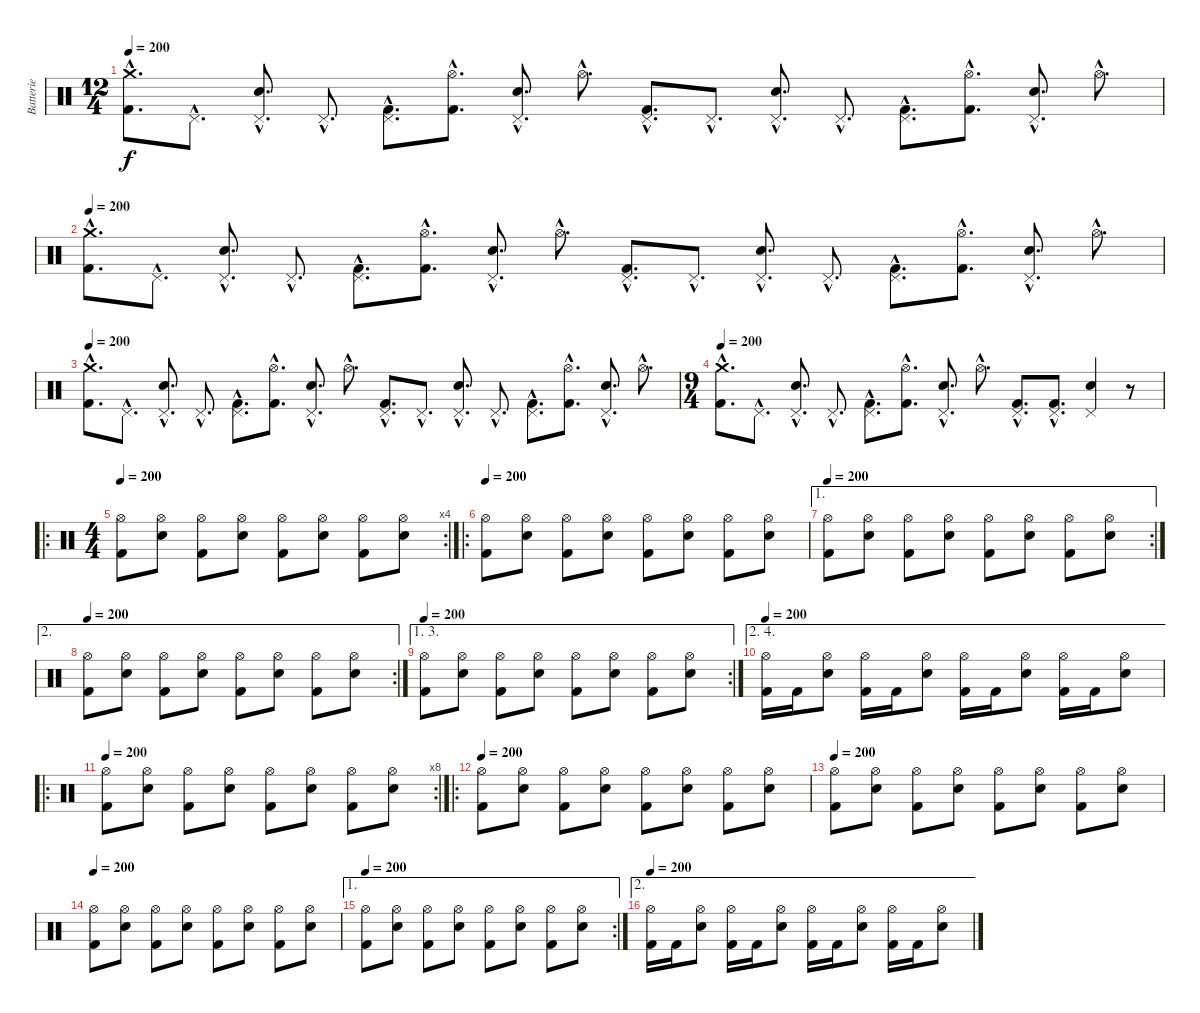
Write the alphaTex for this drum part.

\track ("Batterie" "Batterie") {instrument percussion}
\staff {score}
\articulation defaults
\ts (12 4)
\tempo 220
\tempo 200
\clef neutral
\ks c
("Crash medium (hit)"{hac} "Kick (hit) 2"{hac}).8{d dy f} "Pedal Hi-Hat (hit)"{hac}.8{d} ("Pedal Hi-Hat (hit)"{hac} "Electric Snare (hit)"{hac}).8{d} "Pedal Hi-Hat (hit)"{hac}.8{d} ("Pedal Hi-Hat (hit)"{hac} "Kick (hit) 2"{hac}).8{d} ("Hi-Hat (open)"{hac} "Kick (hit) 2"{hac}).8{d} ("Pedal Hi-Hat (hit)"{hac} "Electric Snare (hit)"{hac}).8{d} "Hi-Hat (open)"{hac}.8{d} ("Pedal Hi-Hat (hit)"{hac} "Kick (hit) 2"{hac}).8{d} "Pedal Hi-Hat (hit)"{hac}.8{d} ("Pedal Hi-Hat (hit)"{hac} "Electric Snare (hit)"{hac}).8{d} "Pedal Hi-Hat (hit)"{hac}.8{d} ("Pedal Hi-Hat (hit)"{hac} "Kick (hit) 2"{hac}).8{d} ("Hi-Hat (open)"{hac} "Kick (hit) 2"{hac}).8{d} ("Pedal Hi-Hat (hit)"{hac} "Electric Snare (hit)"{hac}).8{d} "Hi-Hat (open)"{hac}.8{d} |
\tempo 220
\tempo 200
("Crash medium (hit)"{hac} "Kick (hit) 2"{hac}).8{d} "Pedal Hi-Hat (hit)"{hac}.8{d} ("Pedal Hi-Hat (hit)"{hac} "Electric Snare (hit)"{hac}).8{d} "Pedal Hi-Hat (hit)"{hac}.8{d} ("Pedal Hi-Hat (hit)"{hac} "Kick (hit) 2"{hac}).8{d} ("Hi-Hat (open)"{hac} "Kick (hit) 2"{hac}).8{d} ("Pedal Hi-Hat (hit)"{hac} "Electric Snare (hit)"{hac}).8{d} "Hi-Hat (open)"{hac}.8{d} ("Pedal Hi-Hat (hit)"{hac} "Kick (hit) 2"{hac}).8{d} "Pedal Hi-Hat (hit)"{hac}.8{d} ("Pedal Hi-Hat (hit)"{hac} "Electric Snare (hit)"{hac}).8{d} "Pedal Hi-Hat (hit)"{hac}.8{d} ("Pedal Hi-Hat (hit)"{hac} "Kick (hit) 2"{hac}).8{d} ("Hi-Hat (open)"{hac} "Kick (hit) 2"{hac}).8{d} ("Pedal Hi-Hat (hit)"{hac} "Electric Snare (hit)"{hac}).8{d} "Hi-Hat (open)"{hac}.8{d} |
\tempo 220
\tempo 200
("Crash medium (hit)"{hac} "Kick (hit) 2"{hac}).8{d} "Pedal Hi-Hat (hit)"{hac}.8{d} ("Pedal Hi-Hat (hit)"{hac} "Electric Snare (hit)"{hac}).8{d} "Pedal Hi-Hat (hit)"{hac}.8{d} ("Pedal Hi-Hat (hit)"{hac} "Kick (hit) 2"{hac}).8{d} ("Hi-Hat (open)"{hac} "Kick (hit) 2"{hac}).8{d} ("Pedal Hi-Hat (hit)"{hac} "Electric Snare (hit)"{hac}).8{d} "Hi-Hat (open)"{hac}.8{d} ("Pedal Hi-Hat (hit)"{hac} "Kick (hit) 2"{hac}).8{d} "Pedal Hi-Hat (hit)"{hac}.8{d} ("Pedal Hi-Hat (hit)"{hac} "Electric Snare (hit)"{hac}).8{d} "Pedal Hi-Hat (hit)"{hac}.8{d} ("Pedal Hi-Hat (hit)"{hac} "Kick (hit) 2"{hac}).8{d} ("Hi-Hat (open)"{hac} "Kick (hit) 2"{hac}).8{d} ("Pedal Hi-Hat (hit)"{hac} "Electric Snare (hit)"{hac}).8{d} "Hi-Hat (open)"{hac}.8{d} |
\ts (9 4)
\tempo 200
("Crash medium (hit)"{hac} "Kick (hit) 2"{hac}).8{d} "Pedal Hi-Hat (hit)"{hac}.8{d} ("Pedal Hi-Hat (hit)"{hac} "Electric Snare (hit)"{hac}).8{d} "Pedal Hi-Hat (hit)"{hac}.8{d} ("Pedal Hi-Hat (hit)"{hac} "Kick (hit) 2"{hac}).8{d} ("Hi-Hat (open)"{hac} "Kick (hit) 2"{hac}).8{d} ("Pedal Hi-Hat (hit)"{hac} "Electric Snare (hit)"{hac}).8{d} "Hi-Hat (open)"{hac}.8{d} ("Pedal Hi-Hat (hit)"{hac} "Kick (hit) 2"{hac}).8{d} ("Pedal Hi-Hat (hit)"{hac} "Kick (hit) 2"{hac}).8{d} ("Pedal Hi-Hat (hit)" "Electric Snare (hit)").4 r.8 |
\ro
\rc 4
\ts (4 4)
\tempo 200
("Hi-Hat (open)" "Kick (hit) 2").8 ("Hi-Hat (open)" "Electric Snare (hit)").8 ("Hi-Hat (open)" "Kick (hit) 2").8 ("Hi-Hat (open)" "Electric Snare (hit)").8 ("Hi-Hat (open)" "Kick (hit) 2").8 ("Hi-Hat (open)" "Electric Snare (hit)").8 ("Hi-Hat (open)" "Kick (hit) 2").8 ("Hi-Hat (open)" "Electric Snare (hit)").8 |
\ro
\tempo 200
("Hi-Hat (open)" "Kick (hit) 2").8 ("Hi-Hat (open)" "Electric Snare (hit)").8 ("Hi-Hat (open)" "Kick (hit) 2").8 ("Hi-Hat (open)" "Electric Snare (hit)").8 ("Hi-Hat (open)" "Kick (hit) 2").8 ("Hi-Hat (open)" "Electric Snare (hit)").8 ("Hi-Hat (open)" "Kick (hit) 2").8 ("Hi-Hat (open)" "Electric Snare (hit)").8 |
\ae 1
\rc 2
\tempo 200
("Hi-Hat (open)" "Kick (hit) 2").8 ("Hi-Hat (open)" "Electric Snare (hit)").8 ("Hi-Hat (open)" "Kick (hit) 2").8 ("Hi-Hat (open)" "Electric Snare (hit)").8 ("Hi-Hat (open)" "Kick (hit) 2").8 ("Hi-Hat (open)" "Electric Snare (hit)").8 ("Hi-Hat (open)" "Kick (hit) 2").8 ("Hi-Hat (open)" "Electric Snare (hit)").8 |
\ae 2
\rc 2
\tempo 200
("Hi-Hat (open)" "Kick (hit) 2").8 ("Hi-Hat (open)" "Electric Snare (hit)").8 ("Hi-Hat (open)" "Kick (hit) 2").8 ("Hi-Hat (open)" "Electric Snare (hit)").8 ("Hi-Hat (open)" "Kick (hit) 2").8 ("Hi-Hat (open)" "Electric Snare (hit)").8 ("Hi-Hat (open)" "Kick (hit) 2").8 ("Hi-Hat (open)" "Electric Snare (hit)").8 |
\ae (1 3)
\rc 2
\tempo 200
("Hi-Hat (open)" "Kick (hit) 2").8 ("Hi-Hat (open)" "Electric Snare (hit)").8 ("Hi-Hat (open)" "Kick (hit) 2").8 ("Hi-Hat (open)" "Electric Snare (hit)").8 ("Hi-Hat (open)" "Kick (hit) 2").8 ("Hi-Hat (open)" "Electric Snare (hit)").8 ("Hi-Hat (open)" "Kick (hit) 2").8 ("Hi-Hat (open)" "Electric Snare (hit)").8 |
\ae (2 4)
\tempo 200
("Hi-Hat (open)" "Kick (hit) 2").16 "Kick (hit) 2".16 ("Hi-Hat (open)" "Electric Snare (hit)").8 ("Hi-Hat (open)" "Kick (hit) 2").16 "Kick (hit) 2".16 ("Hi-Hat (open)" "Electric Snare (hit)").8 ("Hi-Hat (open)" "Kick (hit) 2").16 "Kick (hit) 2".16 ("Hi-Hat (open)" "Electric Snare (hit)").8 ("Hi-Hat (open)" "Kick (hit) 2").16 "Kick (hit) 2".16 ("Hi-Hat (open)" "Electric Snare (hit)").8 |
\ro
\rc 8
\tempo 200
("Hi-Hat (open)" "Kick (hit) 2").8 ("Hi-Hat (open)" "Electric Snare (hit)").8 ("Hi-Hat (open)" "Kick (hit) 2").8 ("Hi-Hat (open)" "Electric Snare (hit)").8 ("Hi-Hat (open)" "Kick (hit) 2").8 ("Hi-Hat (open)" "Electric Snare (hit)").8 ("Hi-Hat (open)" "Kick (hit) 2").8 ("Hi-Hat (open)" "Electric Snare (hit)").8 |
\ro
\tempo 200
("Hi-Hat (open)" "Kick (hit) 2").8 ("Hi-Hat (open)" "Electric Snare (hit)").8 ("Hi-Hat (open)" "Kick (hit) 2").8 ("Hi-Hat (open)" "Electric Snare (hit)").8 ("Hi-Hat (open)" "Kick (hit) 2").8 ("Hi-Hat (open)" "Electric Snare (hit)").8 ("Hi-Hat (open)" "Kick (hit) 2").8 ("Hi-Hat (open)" "Electric Snare (hit)").8 |
\tempo 200
("Hi-Hat (open)" "Kick (hit) 2").8 ("Hi-Hat (open)" "Electric Snare (hit)").8 ("Hi-Hat (open)" "Kick (hit) 2").8 ("Hi-Hat (open)" "Electric Snare (hit)").8 ("Hi-Hat (open)" "Kick (hit) 2").8 ("Hi-Hat (open)" "Electric Snare (hit)").8 ("Hi-Hat (open)" "Kick (hit) 2").8 ("Hi-Hat (open)" "Electric Snare (hit)").8 |
\tempo 200
("Hi-Hat (open)" "Kick (hit) 2").8 ("Hi-Hat (open)" "Electric Snare (hit)").8 ("Hi-Hat (open)" "Kick (hit) 2").8 ("Hi-Hat (open)" "Electric Snare (hit)").8 ("Hi-Hat (open)" "Kick (hit) 2").8 ("Hi-Hat (open)" "Electric Snare (hit)").8 ("Hi-Hat (open)" "Kick (hit) 2").8 ("Hi-Hat (open)" "Electric Snare (hit)").8 |
\ae 1
\rc 2
\tempo 200
("Hi-Hat (open)" "Kick (hit) 2").8 ("Hi-Hat (open)" "Electric Snare (hit)").8 ("Hi-Hat (open)" "Kick (hit) 2").8 ("Hi-Hat (open)" "Electric Snare (hit)").8 ("Hi-Hat (open)" "Kick (hit) 2").8 ("Hi-Hat (open)" "Electric Snare (hit)").8 ("Hi-Hat (open)" "Kick (hit) 2").8 ("Hi-Hat (open)" "Electric Snare (hit)").8 |
\ae 2
\tempo 200
("Hi-Hat (open)" "Kick (hit) 2").16 "Kick (hit) 2".16 ("Hi-Hat (open)" "Electric Snare (hit)").8 ("Hi-Hat (open)" "Kick (hit) 2").16 "Kick (hit) 2".16 ("Hi-Hat (open)" "Electric Snare (hit)").8 ("Hi-Hat (open)" "Kick (hit) 2").16 "Kick (hit) 2".16 ("Hi-Hat (open)" "Electric Snare (hit)").8 ("Hi-Hat (open)" "Kick (hit) 2").16 "Kick (hit) 2".16 ("Hi-Hat (open)" "Electric Snare (hit)").8
